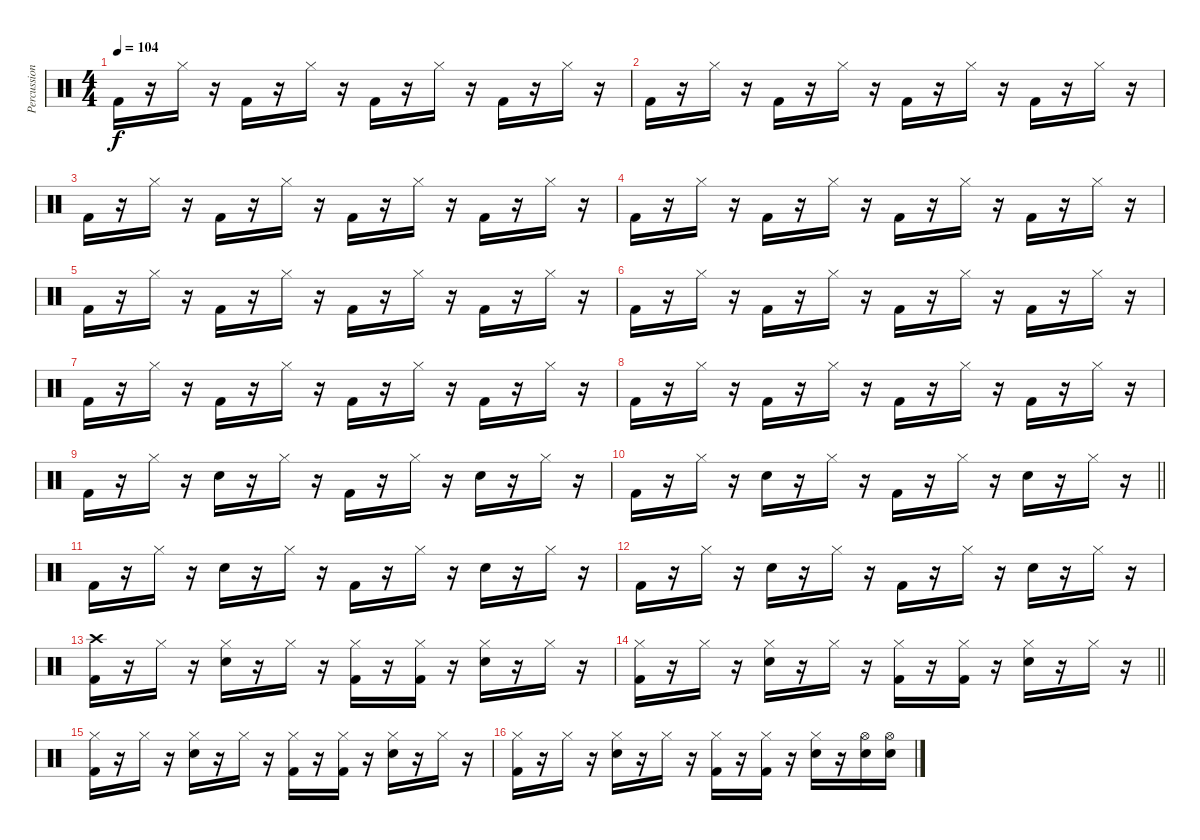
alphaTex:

\track ("Percussion" "Percussion") {instrument percussion}
\staff {score}
\articulation defaults
\ts (4 4)
\tempo 104
\clef neutral
\ks c "Kick (hit) 2".16{dy f}
r.16 "Hi-Hat (closed)".16 r.16 "Kick (hit) 2".16 r.16 "Hi-Hat (closed)".16 r.16 "Kick (hit) 2".16 r.16 "Hi-Hat (closed)".16 r.16 "Kick (hit) 2".16 r.16 "Hi-Hat (closed)".16 r.16 |
"Kick (hit) 2".16 r.16 "Hi-Hat (closed)".16 r.16 "Kick (hit) 2".16 r.16 "Hi-Hat (closed)".16 r.16 "Kick (hit) 2".16 r.16 "Hi-Hat (closed)".16 r.16 "Kick (hit) 2".16 r.16 "Hi-Hat (closed)".16 r.16 |
"Kick (hit) 2".16 r.16 "Hi-Hat (closed)".16 r.16 "Kick (hit) 2".16 r.16 "Hi-Hat (closed)".16 r.16 "Kick (hit) 2".16 r.16 "Hi-Hat (closed)".16 r.16 "Kick (hit) 2".16 r.16 "Hi-Hat (closed)".16 r.16 |
"Kick (hit) 2".16 r.16 "Hi-Hat (closed)".16 r.16 "Kick (hit) 2".16 r.16 "Hi-Hat (closed)".16 r.16 "Kick (hit) 2".16 r.16 "Hi-Hat (closed)".16 r.16 "Kick (hit) 2".16 r.16 "Hi-Hat (closed)".16 r.16 |
"Kick (hit) 2".16 r.16 "Hi-Hat (closed)".16 r.16 "Kick (hit) 2".16 r.16 "Hi-Hat (closed)".16 r.16 "Kick (hit) 2".16 r.16 "Hi-Hat (closed)".16 r.16 "Kick (hit) 2".16 r.16 "Hi-Hat (closed)".16 r.16 |
"Kick (hit) 2".16 r.16 "Hi-Hat (closed)".16 r.16 "Kick (hit) 2".16 r.16 "Hi-Hat (closed)".16 r.16 "Kick (hit) 2".16 r.16 "Hi-Hat (closed)".16 r.16 "Kick (hit) 2".16 r.16 "Hi-Hat (closed)".16 r.16 |
"Kick (hit) 2".16 r.16 "Hi-Hat (closed)".16 r.16 "Kick (hit) 2".16 r.16 "Hi-Hat (closed)".16 r.16 "Kick (hit) 2".16 r.16 "Hi-Hat (closed)".16 r.16 "Kick (hit) 2".16 r.16 "Hi-Hat (closed)".16 r.16 |
"Kick (hit) 2".16 r.16 "Hi-Hat (closed)".16 r.16 "Kick (hit) 2".16 r.16 "Hi-Hat (closed)".16 r.16 "Kick (hit) 2".16 r.16 "Hi-Hat (closed)".16 r.16 "Kick (hit) 2".16 r.16 "Hi-Hat (closed)".16 r.16 |
"Kick (hit) 2".16 r.16 "Hi-Hat (closed)".16 r.16 "Electric Snare (hit)".16 r.16 "Hi-Hat (closed)".16 r.16 "Kick (hit) 2".16 r.16 "Hi-Hat (closed)".16 r.16 "Electric Snare (hit)".16 r.16 "Hi-Hat (closed)".16 r.16 |
\barLineRight lightlight "Kick (hit) 2".16
r.16 "Hi-Hat (closed)".16 r.16 "Electric Snare (hit)".16 r.16 "Hi-Hat (closed)".16 r.16 "Kick (hit) 2".16 r.16 "Hi-Hat (closed)".16 r.16 "Electric Snare (hit)".16 r.16 "Hi-Hat (closed)".16 r.16 |
"Kick (hit) 2".16 r.16 "Hi-Hat (closed)".16 r.16 "Electric Snare (hit)".16 r.16 "Hi-Hat (closed)".16 r.16 "Kick (hit) 2".16 r.16 "Hi-Hat (closed)".16 r.16 "Electric Snare (hit)".16 r.16 "Hi-Hat (closed)".16 r.16 |
"Kick (hit) 2".16 r.16 "Hi-Hat (closed)".16 r.16 "Electric Snare (hit)".16 r.16 "Hi-Hat (closed)".16 r.16 "Kick (hit) 2".16 r.16 "Hi-Hat (closed)".16 r.16 "Electric Snare (hit)".16 r.16 "Hi-Hat (closed)".16 r.16 |
("Crash high (hit)" "Kick (hit) 2").16 r.16 "Hi-Hat (closed)".16 r.16 ("Hi-Hat (closed)" "Electric Snare (hit)").16 r.16 "Hi-Hat (closed)".16 r.16 ("Hi-Hat (closed)" "Kick (hit) 2").16 r.16 ("Hi-Hat (closed)" "Kick (hit) 2").16 r.16 ("Hi-Hat (closed)" "Electric Snare (hit)").16 r.16 "Hi-Hat (closed)".16 r.16 |
\barLineRight lightlight
("Hi-Hat (closed)" "Kick (hit) 2").16 r.16 "Hi-Hat (closed)".16 r.16 ("Hi-Hat (closed)" "Electric Snare (hit)").16 r.16 "Hi-Hat (closed)".16 r.16 ("Hi-Hat (closed)" "Kick (hit) 2").16 r.16 ("Hi-Hat (closed)" "Kick (hit) 2").16 r.16 ("Hi-Hat (closed)" "Electric Snare (hit)").16 r.16 "Hi-Hat (closed)".16 r.16 |
("Hi-Hat (closed)" "Kick (hit) 2").16 r.16 "Hi-Hat (closed)".16 r.16 ("Hi-Hat (closed)" "Electric Snare (hit)").16 r.16 "Hi-Hat (closed)".16 r.16 ("Hi-Hat (closed)" "Kick (hit) 2").16 r.16 ("Hi-Hat (closed)" "Kick (hit) 2").16 r.16 ("Hi-Hat (closed)" "Electric Snare (hit)").16 r.16 "Hi-Hat (closed)".16 r.16 |
("Hi-Hat (closed)" "Kick (hit) 2").16 r.16 "Hi-Hat (closed)".16 r.16 ("Hi-Hat (closed)" "Electric Snare (hit)").16 r.16 "Hi-Hat (closed)".16 r.16 ("Hi-Hat (closed)" "Kick (hit) 2").16 r.16 ("Hi-Hat (closed)" "Kick (hit) 2").16 r.16 ("Hi-Hat (closed)" "Electric Snare (hit)").16 r.16 ("Hi-Hat (open)" "Electric Snare (hit)").16 ("Hi-Hat (open)" "Electric Snare (hit)").16
